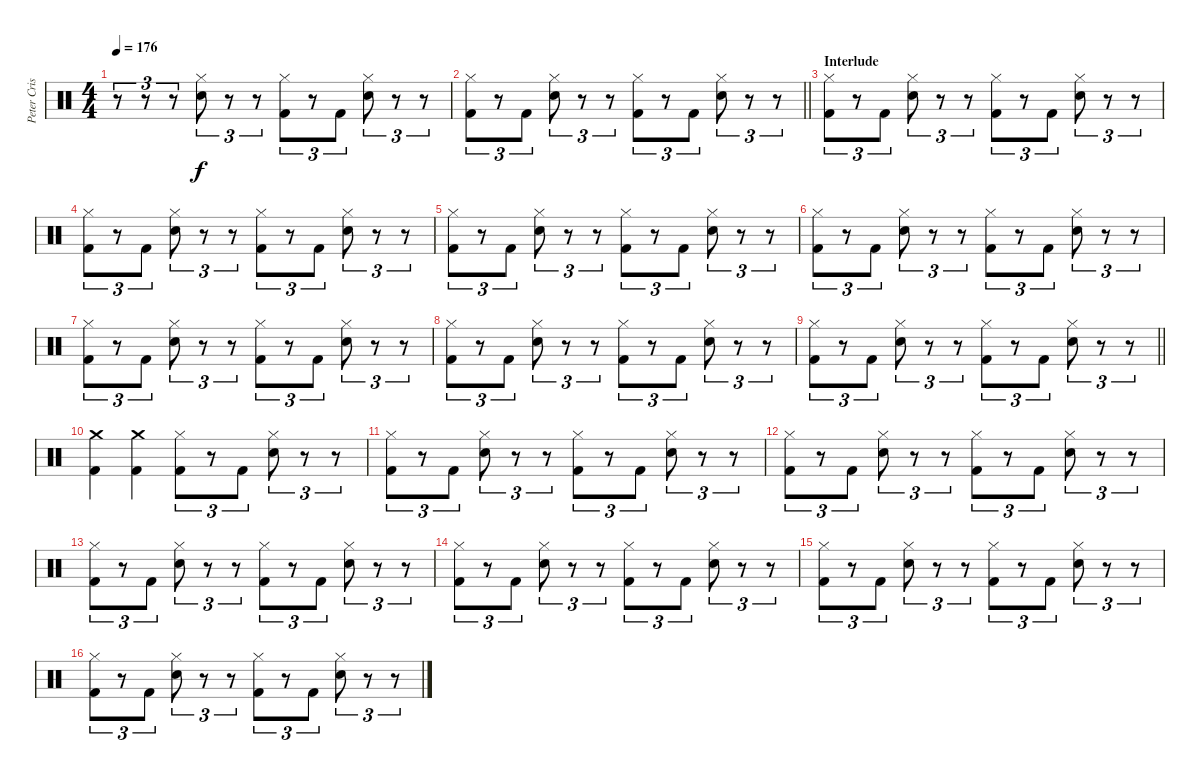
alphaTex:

\track ("Peter Criss" "Peter Cris") {instrument percussion}
\staff {score}
\articulation defaults
\ts (4 4)
\tempo 176
\clef neutral
\ks c
r.8{tu (3 2) dy f} r.8{tu (3 2)} r.8{tu (3 2)} ("Hi-Hat (closed)" "Electric Snare (hit)").8{tu (3 2)} r.8{tu (3 2)} r.8{tu (3 2)} ("Hi-Hat (closed)" "Kick (hit) 2").8{tu (3 2)} r.8{tu (3 2)} "Kick (hit) 2".8{tu (3 2)} ("Hi-Hat (closed)" "Electric Snare (hit)").8{tu (3 2)} r.8{tu (3 2)} r.8{tu (3 2)} |
\barLineRight lightlight
("Hi-Hat (closed)" "Kick (hit) 2").8{tu (3 2)} r.8{tu (3 2)} "Kick (hit) 2".8{tu (3 2)} ("Hi-Hat (closed)" "Electric Snare (hit)").8{tu (3 2)} r.8{tu (3 2)} r.8{tu (3 2)} ("Hi-Hat (closed)" "Kick (hit) 2").8{tu (3 2)} r.8{tu (3 2)} "Kick (hit) 2".8{tu (3 2)} ("Hi-Hat (closed)" "Electric Snare (hit)").8{tu (3 2)} r.8{tu (3 2)} r.8{tu (3 2)} |
\section ("" "Interlude")
("Hi-Hat (closed)" "Kick (hit) 2").8{tu (3 2)} r.8{tu (3 2)} "Kick (hit) 2".8{tu (3 2)} ("Hi-Hat (closed)" "Electric Snare (hit)").8{tu (3 2)} r.8{tu (3 2)} r.8{tu (3 2)} ("Hi-Hat (closed)" "Kick (hit) 2").8{tu (3 2)} r.8{tu (3 2)} "Kick (hit) 2".8{tu (3 2)} ("Hi-Hat (closed)" "Electric Snare (hit)").8{tu (3 2)} r.8{tu (3 2)} r.8{tu (3 2)} |
("Hi-Hat (closed)" "Kick (hit) 2").8{tu (3 2)} r.8{tu (3 2)} "Kick (hit) 2".8{tu (3 2)} ("Hi-Hat (closed)" "Electric Snare (hit)").8{tu (3 2)} r.8{tu (3 2)} r.8{tu (3 2)} ("Hi-Hat (closed)" "Kick (hit) 2").8{tu (3 2)} r.8{tu (3 2)} "Kick (hit) 2".8{tu (3 2)} ("Hi-Hat (closed)" "Electric Snare (hit)").8{tu (3 2)} r.8{tu (3 2)} r.8{tu (3 2)} |
("Hi-Hat (closed)" "Kick (hit) 2").8{tu (3 2)} r.8{tu (3 2)} "Kick (hit) 2".8{tu (3 2)} ("Hi-Hat (closed)" "Electric Snare (hit)").8{tu (3 2)} r.8{tu (3 2)} r.8{tu (3 2)} ("Hi-Hat (closed)" "Kick (hit) 2").8{tu (3 2)} r.8{tu (3 2)} "Kick (hit) 2".8{tu (3 2)} ("Hi-Hat (closed)" "Electric Snare (hit)").8{tu (3 2)} r.8{tu (3 2)} r.8{tu (3 2)} |
("Hi-Hat (closed)" "Kick (hit) 2").8{tu (3 2)} r.8{tu (3 2)} "Kick (hit) 2".8{tu (3 2)} ("Hi-Hat (closed)" "Electric Snare (hit)").8{tu (3 2)} r.8{tu (3 2)} r.8{tu (3 2)} ("Hi-Hat (closed)" "Kick (hit) 2").8{tu (3 2)} r.8{tu (3 2)} "Kick (hit) 2".8{tu (3 2)} ("Hi-Hat (closed)" "Electric Snare (hit)").8{tu (3 2)} r.8{tu (3 2)} r.8{tu (3 2)} |
("Hi-Hat (closed)" "Kick (hit) 2").8{tu (3 2)} r.8{tu (3 2)} "Kick (hit) 2".8{tu (3 2)} ("Hi-Hat (closed)" "Electric Snare (hit)").8{tu (3 2)} r.8{tu (3 2)} r.8{tu (3 2)} ("Hi-Hat (closed)" "Kick (hit) 2").8{tu (3 2)} r.8{tu (3 2)} "Kick (hit) 2".8{tu (3 2)} ("Hi-Hat (closed)" "Electric Snare (hit)").8{tu (3 2)} r.8{tu (3 2)} r.8{tu (3 2)} |
("Hi-Hat (closed)" "Kick (hit) 2").8{tu (3 2)} r.8{tu (3 2)} "Kick (hit) 2".8{tu (3 2)} ("Hi-Hat (closed)" "Electric Snare (hit)").8{tu (3 2)} r.8{tu (3 2)} r.8{tu (3 2)} ("Hi-Hat (closed)" "Kick (hit) 2").8{tu (3 2)} r.8{tu (3 2)} "Kick (hit) 2".8{tu (3 2)} ("Hi-Hat (closed)" "Electric Snare (hit)").8{tu (3 2)} r.8{tu (3 2)} r.8{tu (3 2)} |
\barLineRight lightlight
("Hi-Hat (closed)" "Kick (hit) 2").8{tu (3 2)} r.8{tu (3 2)} "Kick (hit) 2".8{tu (3 2)} ("Hi-Hat (closed)" "Electric Snare (hit)").8{tu (3 2)} r.8{tu (3 2)} r.8{tu (3 2)} ("Hi-Hat (closed)" "Kick (hit) 2").8{tu (3 2)} r.8{tu (3 2)} "Kick (hit) 2".8{tu (3 2)} ("Hi-Hat (closed)" "Electric Snare (hit)").8{tu (3 2)} r.8{tu (3 2)} r.8{tu (3 2)} |
("Crash medium (hit)" "Kick (hit) 2").4 ("Crash medium (hit)" "Kick (hit) 2").4 ("Hi-Hat (closed)" "Kick (hit) 2").8{tu (3 2)} r.8{tu (3 2)} "Kick (hit) 2".8{tu (3 2)} ("Hi-Hat (closed)" "Electric Snare (hit)").8{tu (3 2)} r.8{tu (3 2)} r.8{tu (3 2)} |
("Hi-Hat (closed)" "Kick (hit) 2").8{tu (3 2)} r.8{tu (3 2)} "Kick (hit) 2".8{tu (3 2)} ("Hi-Hat (closed)" "Electric Snare (hit)").8{tu (3 2)} r.8{tu (3 2)} r.8{tu (3 2)} ("Hi-Hat (closed)" "Kick (hit) 2").8{tu (3 2)} r.8{tu (3 2)} "Kick (hit) 2".8{tu (3 2)} ("Hi-Hat (closed)" "Electric Snare (hit)").8{tu (3 2)} r.8{tu (3 2)} r.8{tu (3 2)} |
("Hi-Hat (closed)" "Kick (hit) 2").8{tu (3 2)} r.8{tu (3 2)} "Kick (hit) 2".8{tu (3 2)} ("Hi-Hat (closed)" "Electric Snare (hit)").8{tu (3 2)} r.8{tu (3 2)} r.8{tu (3 2)} ("Hi-Hat (closed)" "Kick (hit) 2").8{tu (3 2)} r.8{tu (3 2)} "Kick (hit) 2".8{tu (3 2)} ("Hi-Hat (closed)" "Electric Snare (hit)").8{tu (3 2)} r.8{tu (3 2)} r.8{tu (3 2)} |
("Hi-Hat (closed)" "Kick (hit) 2").8{tu (3 2)} r.8{tu (3 2)} "Kick (hit) 2".8{tu (3 2)} ("Hi-Hat (closed)" "Electric Snare (hit)").8{tu (3 2)} r.8{tu (3 2)} r.8{tu (3 2)} ("Hi-Hat (closed)" "Kick (hit) 2").8{tu (3 2)} r.8{tu (3 2)} "Kick (hit) 2".8{tu (3 2)} ("Hi-Hat (closed)" "Electric Snare (hit)").8{tu (3 2)} r.8{tu (3 2)} r.8{tu (3 2)} |
("Hi-Hat (closed)" "Kick (hit) 2").8{tu (3 2)} r.8{tu (3 2)} "Kick (hit) 2".8{tu (3 2)} ("Hi-Hat (closed)" "Electric Snare (hit)").8{tu (3 2)} r.8{tu (3 2)} r.8{tu (3 2)} ("Hi-Hat (closed)" "Kick (hit) 2").8{tu (3 2)} r.8{tu (3 2)} "Kick (hit) 2".8{tu (3 2)} ("Hi-Hat (closed)" "Electric Snare (hit)").8{tu (3 2)} r.8{tu (3 2)} r.8{tu (3 2)} |
("Hi-Hat (closed)" "Kick (hit) 2").8{tu (3 2)} r.8{tu (3 2)} "Kick (hit) 2".8{tu (3 2)} ("Hi-Hat (closed)" "Electric Snare (hit)").8{tu (3 2)} r.8{tu (3 2)} r.8{tu (3 2)} ("Hi-Hat (closed)" "Kick (hit) 2").8{tu (3 2)} r.8{tu (3 2)} "Kick (hit) 2".8{tu (3 2)} ("Hi-Hat (closed)" "Electric Snare (hit)").8{tu (3 2)} r.8{tu (3 2)} r.8{tu (3 2)} |
("Hi-Hat (closed)" "Kick (hit) 2").8{tu (3 2)} r.8{tu (3 2)} "Kick (hit) 2".8{tu (3 2)} ("Hi-Hat (closed)" "Electric Snare (hit)").8{tu (3 2)} r.8{tu (3 2)} r.8{tu (3 2)} ("Hi-Hat (closed)" "Kick (hit) 2").8{tu (3 2)} r.8{tu (3 2)} "Kick (hit) 2".8{tu (3 2)} ("Hi-Hat (closed)" "Electric Snare (hit)").8{tu (3 2)} r.8{tu (3 2)} r.8{tu (3 2)}
